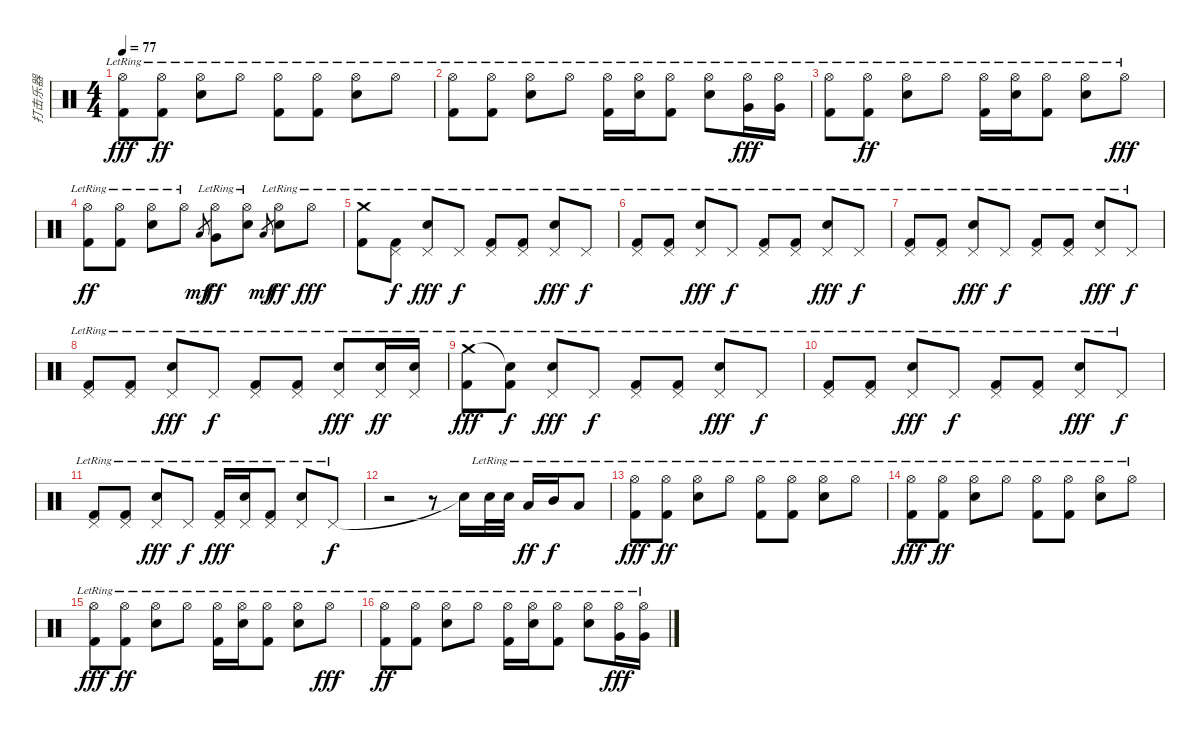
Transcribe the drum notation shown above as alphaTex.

\track ("打击乐器" "打击乐器") {instrument percussion}
\staff {score}
\articulation defaults
\ts (4 4)
\tempo 77
\clef neutral
\ks c
("Kick (hit) 2"{lr} "Hi-Hat (open)"{lr}).8{dy fff} ("Kick (hit) 2"{lr} "Hi-Hat (open)"{lr}).8{dy ff} ("Snare (hit) 2"{lr} "Hi-Hat (open)"{lr}).8 "Hi-Hat (open)"{lr}.8 ("Kick (hit) 2"{lr} "Hi-Hat (open)"{lr}).8 ("Kick (hit) 2"{lr} "Hi-Hat (open)"{lr}).8 ("Snare (hit) 2"{lr} "Hi-Hat (open)"{lr}).8 "Hi-Hat (open)"{lr}.8 |
("Kick (hit) 2"{lr} "Hi-Hat (open)"{lr}).8 ("Kick (hit) 2"{lr} "Hi-Hat (open)"{lr}).8 ("Snare (hit) 2"{lr} "Hi-Hat (open)"{lr}).8 "Hi-Hat (open)"{lr}.8 ("Kick (hit) 2"{lr} "Hi-Hat (open)"{lr}).16 ("Snare (hit) 2"{lr} "Hi-Hat (open)"{lr}).16 ("Kick (hit) 2"{lr} "Hi-Hat (open)"{lr}).8 ("Snare (hit) 2"{lr} "Hi-Hat (open)"{lr}).8 ("Very Low Tom (hit)"{lr} "Hi-Hat (open)"{lr}).16{dy fff} ("Very Low Tom (hit)"{lr} "Hi-Hat (open)"{lr}).16 |
("Kick (hit) 2"{lr} "Hi-Hat (open)"{lr}).8 ("Kick (hit) 2"{lr} "Hi-Hat (open)"{lr}).8{dy ff} ("Snare (hit) 2"{lr} "Hi-Hat (open)"{lr}).8 "Hi-Hat (open)"{lr}.8 ("Kick (hit) 2"{lr} "Hi-Hat (open)"{lr}).16 ("Snare (hit) 2"{lr} "Hi-Hat (open)"{lr}).16 ("Kick (hit) 2"{lr} "Hi-Hat (open)"{lr}).8 ("Snare (hit) 2"{lr} "Hi-Hat (open)"{lr}).8 "Hi-Hat (open)"{lr}.8{dy fff} |
("Kick (hit) 2"{lr} "Hi-Hat (open)"{lr}).8{dy ff} ("Kick (hit) 2"{lr} "Hi-Hat (open)"{lr}).8 ("Snare (hit) 2"{lr} "Hi-Hat (open)"{lr}).8 "Hi-Hat (open)"{lr}.8 "Low Floor Tom (hit)".8{gr dy mf} ("Very Low Tom (hit)"{lr} "Hi-Hat (open)"{lr}).8{dy ff} ("Snare (hit) 2"{lr} "Hi-Hat (open)"{lr}).8 "Low Floor Tom (hit)".8{gr dy mf} ("Snare (hit) 2"{lr} "Hi-Hat (open)"{lr}).8{dy ff} "Hi-Hat (open)"{lr}.8{dy fff} |
("Kick (hit) 2"{lr} "Crash medium (hit)"{lr}).8 ("Kick (hit) 2"{lr} "Pedal Hi-Hat (hit)"{lr}).8{dy f} ("Snare (hit) 2"{lr} "Pedal Hi-Hat (hit)"{lr}).8{dy fff} "Pedal Hi-Hat (hit)"{lr}.8{dy f} ("Kick (hit) 2"{lr} "Pedal Hi-Hat (hit)"{lr}).8 ("Kick (hit) 2"{lr} "Pedal Hi-Hat (hit)"{lr}).8 ("Electric Snare (hit)"{lr} "Pedal Hi-Hat (hit)"{lr}).8{dy fff} "Pedal Hi-Hat (hit)"{lr}.8{dy f} |
("Kick (hit) 2"{lr} "Pedal Hi-Hat (hit)"{lr}).8 ("Kick (hit) 2"{lr} "Pedal Hi-Hat (hit)"{lr}).8 ("Snare (hit) 2"{lr} "Pedal Hi-Hat (hit)"{lr}).8{dy fff} "Pedal Hi-Hat (hit)"{lr}.8{dy f} ("Kick (hit) 2"{lr} "Pedal Hi-Hat (hit)"{lr}).8 ("Kick (hit) 2"{lr} "Pedal Hi-Hat (hit)"{lr}).8 ("Electric Snare (hit)"{lr} "Pedal Hi-Hat (hit)"{lr}).8{dy fff} "Pedal Hi-Hat (hit)"{lr}.8{dy f} |
("Kick (hit) 2"{lr} "Pedal Hi-Hat (hit)"{lr}).8 ("Kick (hit) 2"{lr} "Pedal Hi-Hat (hit)"{lr}).8 ("Snare (hit) 2"{lr} "Pedal Hi-Hat (hit)"{lr}).8{dy fff} "Pedal Hi-Hat (hit)"{lr}.8{dy f} ("Kick (hit) 2"{lr} "Pedal Hi-Hat (hit)"{lr}).8 ("Kick (hit) 2"{lr} "Pedal Hi-Hat (hit)"{lr}).8 ("Electric Snare (hit)"{lr} "Pedal Hi-Hat (hit)"{lr}).8{dy fff} "Pedal Hi-Hat (hit)"{lr}.8{dy f} |
("Kick (hit) 2"{lr} "Pedal Hi-Hat (hit)"{lr}).8 ("Kick (hit) 2"{lr} "Pedal Hi-Hat (hit)"{lr}).8 ("Snare (hit) 2"{lr} "Pedal Hi-Hat (hit)"{lr}).8{dy fff} "Pedal Hi-Hat (hit)"{lr}.8{dy f} ("Kick (hit) 2"{lr} "Pedal Hi-Hat (hit)"{lr}).8 ("Kick (hit) 2"{lr} "Pedal Hi-Hat (hit)"{lr}).8 ("Electric Snare (hit)"{lr} "Pedal Hi-Hat (hit)"{lr}).8{dy fff} ("Electric Snare (hit)"{lr} "Pedal Hi-Hat (hit)"{lr}).16{dy ff} ("Electric Snare (hit)"{lr} "Pedal Hi-Hat (hit)"{lr}).16 |
("Kick (hit) 2"{lr} "Crash medium (hit)"{lr}).8{dy fff} ("Kick (hit) 2"{lr} "Snare (hit)"{t}).8{dy f} ("Snare (hit) 2"{lr} "Pedal Hi-Hat (hit)"{lr}).8{dy fff} "Pedal Hi-Hat (hit)"{lr}.8{dy f} ("Kick (hit) 2"{lr} "Pedal Hi-Hat (hit)"{lr}).8 ("Kick (hit) 2"{lr} "Pedal Hi-Hat (hit)"{lr}).8 ("Electric Snare (hit)"{lr} "Pedal Hi-Hat (hit)"{lr}).8{dy fff} "Pedal Hi-Hat (hit)"{lr}.8{dy f} |
("Kick (hit) 2"{lr} "Pedal Hi-Hat (hit)"{lr}).8 ("Kick (hit) 2"{lr} "Pedal Hi-Hat (hit)"{lr}).8 ("Snare (hit) 2"{lr} "Pedal Hi-Hat (hit)"{lr}).8{dy fff} "Pedal Hi-Hat (hit)"{lr}.8{dy f} ("Kick (hit) 2"{lr} "Pedal Hi-Hat (hit)"{lr}).8 ("Kick (hit) 2"{lr} "Pedal Hi-Hat (hit)"{lr}).8 ("Electric Snare (hit)"{lr} "Pedal Hi-Hat (hit)"{lr}).8{dy fff} "Pedal Hi-Hat (hit)"{lr}.8{dy f} |
("Kick (hit) 2"{lr} "Pedal Hi-Hat (hit)"{lr}).8 ("Kick (hit) 2"{lr} "Pedal Hi-Hat (hit)"{lr}).8 ("Snare (hit) 2"{lr} "Pedal Hi-Hat (hit)"{lr}).8{dy fff} "Pedal Hi-Hat (hit)"{lr}.8{dy f} ("Kick (hit) 2"{lr} "Pedal Hi-Hat (hit)"{lr}).16{dy fff} ("Electric Snare (hit)"{lr} "Pedal Hi-Hat (hit)"{lr}).16 ("Kick (hit) 2"{lr} "Pedal Hi-Hat (hit)"{lr}).8 ("Electric Snare (hit)"{lr} "Pedal Hi-Hat (hit)"{lr}).8 "Pedal Hi-Hat (hit)"{lr}.8{dy f} |
r.2 r.8 "Snare (hit)"{t}.16 "Electric Snare (hit)"{lr}.32 "Electric Snare (hit)"{lr}.32 "Low Tom (hit)"{lr}.16{dy ff} "Mid Tom (hit)"{lr}.16{dy f} "Low Tom (hit)"{lr}.8 |
("Kick (hit) 2"{lr} "Hi-Hat (open)"{lr}).8{dy fff} ("Kick (hit) 2"{lr} "Hi-Hat (open)"{lr}).8{dy ff} ("Snare (hit) 2"{lr} "Hi-Hat (open)"{lr}).8 "Hi-Hat (open)"{lr}.8 ("Kick (hit) 2"{lr} "Hi-Hat (open)"{lr}).8 ("Kick (hit) 2"{lr} "Hi-Hat (open)"{lr}).8 ("Snare (hit) 2"{lr} "Hi-Hat (open)"{lr}).8 "Hi-Hat (open)"{lr}.8 |
("Kick (hit) 2"{lr} "Hi-Hat (open)"{lr}).8{dy fff} ("Kick (hit) 2"{lr} "Hi-Hat (open)"{lr}).8{dy ff} ("Snare (hit) 2"{lr} "Hi-Hat (open)"{lr}).8 "Hi-Hat (open)"{lr}.8 ("Kick (hit) 2"{lr} "Hi-Hat (open)"{lr}).8 ("Kick (hit) 2"{lr} "Hi-Hat (open)"{lr}).8 ("Snare (hit) 2"{lr} "Hi-Hat (open)"{lr}).8 "Hi-Hat (open)"{lr}.8 |
("Kick (hit) 2"{lr} "Hi-Hat (open)"{lr}).8{dy fff} ("Kick (hit) 2"{lr} "Hi-Hat (open)"{lr}).8{dy ff} ("Snare (hit) 2"{lr} "Hi-Hat (open)"{lr}).8 "Hi-Hat (open)"{lr}.8 ("Kick (hit) 2"{lr} "Hi-Hat (open)"{lr}).16 ("Snare (hit) 2"{lr} "Hi-Hat (open)"{lr}).16 ("Kick (hit) 2"{lr} "Hi-Hat (open)"{lr}).8 ("Snare (hit) 2"{lr} "Hi-Hat (open)"{lr}).8 "Hi-Hat (open)"{lr}.8{dy fff} |
("Kick (hit) 2"{lr} "Hi-Hat (open)"{lr}).8{dy ff} ("Kick (hit) 2"{lr} "Hi-Hat (open)"{lr}).8 ("Snare (hit) 2"{lr} "Hi-Hat (open)"{lr}).8 "Hi-Hat (open)"{lr}.8 ("Kick (hit) 2"{lr} "Hi-Hat (open)"{lr}).16 ("Snare (hit) 2"{lr} "Hi-Hat (open)"{lr}).16 ("Kick (hit) 2"{lr} "Hi-Hat (open)"{lr}).8 ("Snare (hit) 2"{lr} "Hi-Hat (open)"{lr}).8 ("Very Low Tom (hit)"{lr} "Hi-Hat (open)"{lr}).16{dy fff} ("Very Low Tom (hit)"{lr} "Hi-Hat (open)"{lr}).16
